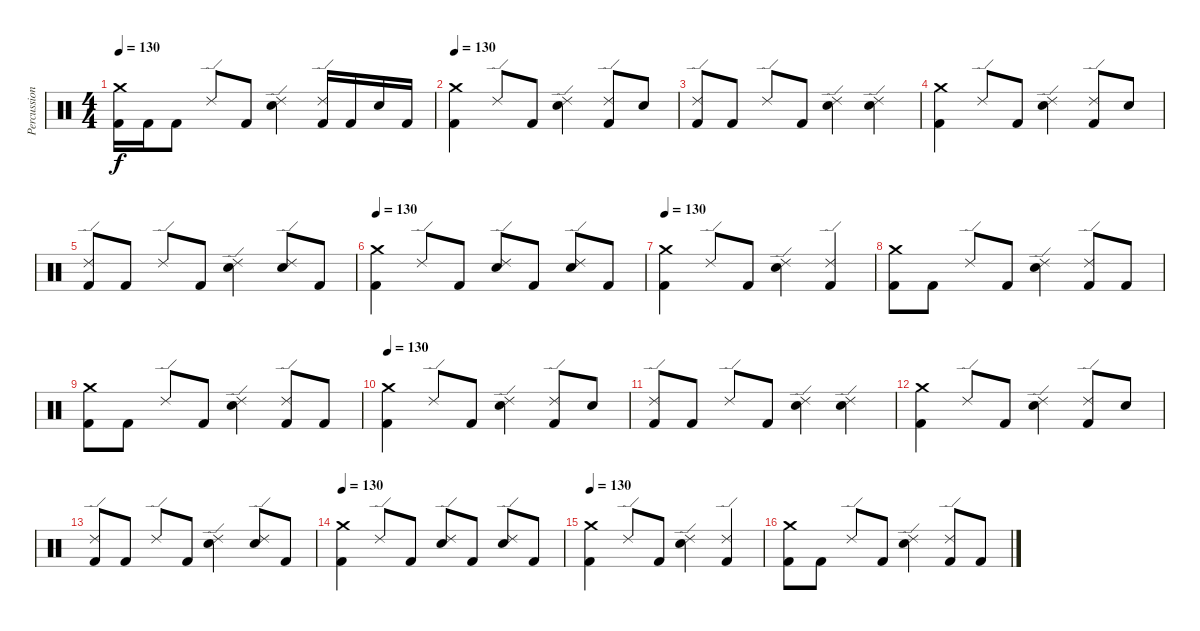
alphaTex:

\track ("Percussion" "Percussion") {instrument percussion}
\staff {score}
\articulation defaults
\ts (4 4)
\tempo 130
\clef neutral
\ks c
("Crash medium (hit)" "Kick (hit) 2").16{dy f} "Kick (hit) 2".16 "Kick (hit) 2".8 "Ride (edge) 2".8 "Kick (hit) 2".8 ("Ride (edge) 2" "Electric Snare (hit)").4 ("Ride (edge) 2" "Kick (hit) 2").16 "Kick (hit) 2".16 "Electric Snare (hit)".16 "Kick (hit) 2".16 |
\tempo 130
("Crash medium (hit)" "Kick (hit) 2").4 "Ride (edge) 2".8 "Kick (hit) 2".8 ("Ride (edge) 2" "Electric Snare (hit)").4 ("Kick (hit) 2" "Ride (edge) 2").8 "Electric Snare (hit)".8 |
("Kick (hit) 2" "Ride (edge) 2").8 "Kick (hit) 2".8 "Ride (edge) 2".8 "Kick (hit) 2".8 ("Electric Snare (hit)" "Ride (edge) 2").4 ("Electric Snare (hit)" "Ride (edge) 2").4 |
("Crash medium (hit)" "Kick (hit) 2").4 "Ride (edge) 2".8 "Kick (hit) 2".8 ("Ride (edge) 2" "Electric Snare (hit)").4 ("Kick (hit) 2" "Ride (edge) 2").8 "Electric Snare (hit)".8 |
("Kick (hit) 2" "Ride (edge) 2").8 "Kick (hit) 2".8 "Ride (edge) 2".8 "Kick (hit) 2".8 ("Electric Snare (hit)" "Ride (edge) 2").4 ("Electric Snare (hit)" "Ride (edge) 2").8 "Kick (hit) 2".8 |
\tempo 130
("Crash medium (hit)" "Kick (hit) 2").4 "Ride (edge) 2".8 "Kick (hit) 2".8 ("Ride (edge) 2" "Electric Snare (hit)").8 "Kick (hit) 2".8 ("Ride (edge) 2" "Electric Snare (hit)").8 "Kick (hit) 2".8 |
\tempo 130
("Crash medium (hit)" "Kick (hit) 2").4 "Ride (edge) 2".8 "Kick (hit) 2".8 ("Ride (edge) 2" "Electric Snare (hit)").4 ("Ride (edge) 2" "Kick (hit) 2").4 |
("Crash medium (hit)" "Kick (hit) 2").8 "Kick (hit) 2".8 "Ride (edge) 2".8 "Kick (hit) 2".8 ("Ride (edge) 2" "Electric Snare (hit)").4 ("Ride (edge) 2" "Kick (hit) 2").8 "Kick (hit) 2".8 |
("Crash medium (hit)" "Kick (hit) 2").8 "Kick (hit) 2".8 "Ride (edge) 2".8 "Kick (hit) 2".8 ("Ride (edge) 2" "Electric Snare (hit)").4 ("Ride (edge) 2" "Kick (hit) 2").8 "Kick (hit) 2".8 |
\tempo 130
("Crash medium (hit)" "Kick (hit) 2").4 "Ride (edge) 2".8 "Kick (hit) 2".8 ("Ride (edge) 2" "Electric Snare (hit)").4 ("Kick (hit) 2" "Ride (edge) 2").8 "Electric Snare (hit)".8 |
("Kick (hit) 2" "Ride (edge) 2").8 "Kick (hit) 2".8 "Ride (edge) 2".8 "Kick (hit) 2".8 ("Electric Snare (hit)" "Ride (edge) 2").4 ("Electric Snare (hit)" "Ride (edge) 2").4 |
("Crash medium (hit)" "Kick (hit) 2").4 "Ride (edge) 2".8 "Kick (hit) 2".8 ("Ride (edge) 2" "Electric Snare (hit)").4 ("Kick (hit) 2" "Ride (edge) 2").8 "Electric Snare (hit)".8 |
("Kick (hit) 2" "Ride (edge) 2").8 "Kick (hit) 2".8 "Ride (edge) 2".8 "Kick (hit) 2".8 ("Electric Snare (hit)" "Ride (edge) 2").4 ("Electric Snare (hit)" "Ride (edge) 2").8 "Kick (hit) 2".8 |
\tempo 130
("Crash medium (hit)" "Kick (hit) 2").4 "Ride (edge) 2".8 "Kick (hit) 2".8 ("Ride (edge) 2" "Electric Snare (hit)").8 "Kick (hit) 2".8 ("Ride (edge) 2" "Electric Snare (hit)").8 "Kick (hit) 2".8 |
\tempo 130
("Crash medium (hit)" "Kick (hit) 2").4 "Ride (edge) 2".8 "Kick (hit) 2".8 ("Ride (edge) 2" "Electric Snare (hit)").4 ("Ride (edge) 2" "Kick (hit) 2").4 |
("Crash medium (hit)" "Kick (hit) 2").8 "Kick (hit) 2".8 "Ride (edge) 2".8 "Kick (hit) 2".8 ("Ride (edge) 2" "Electric Snare (hit)").4 ("Ride (edge) 2" "Kick (hit) 2").8 "Kick (hit) 2".8
